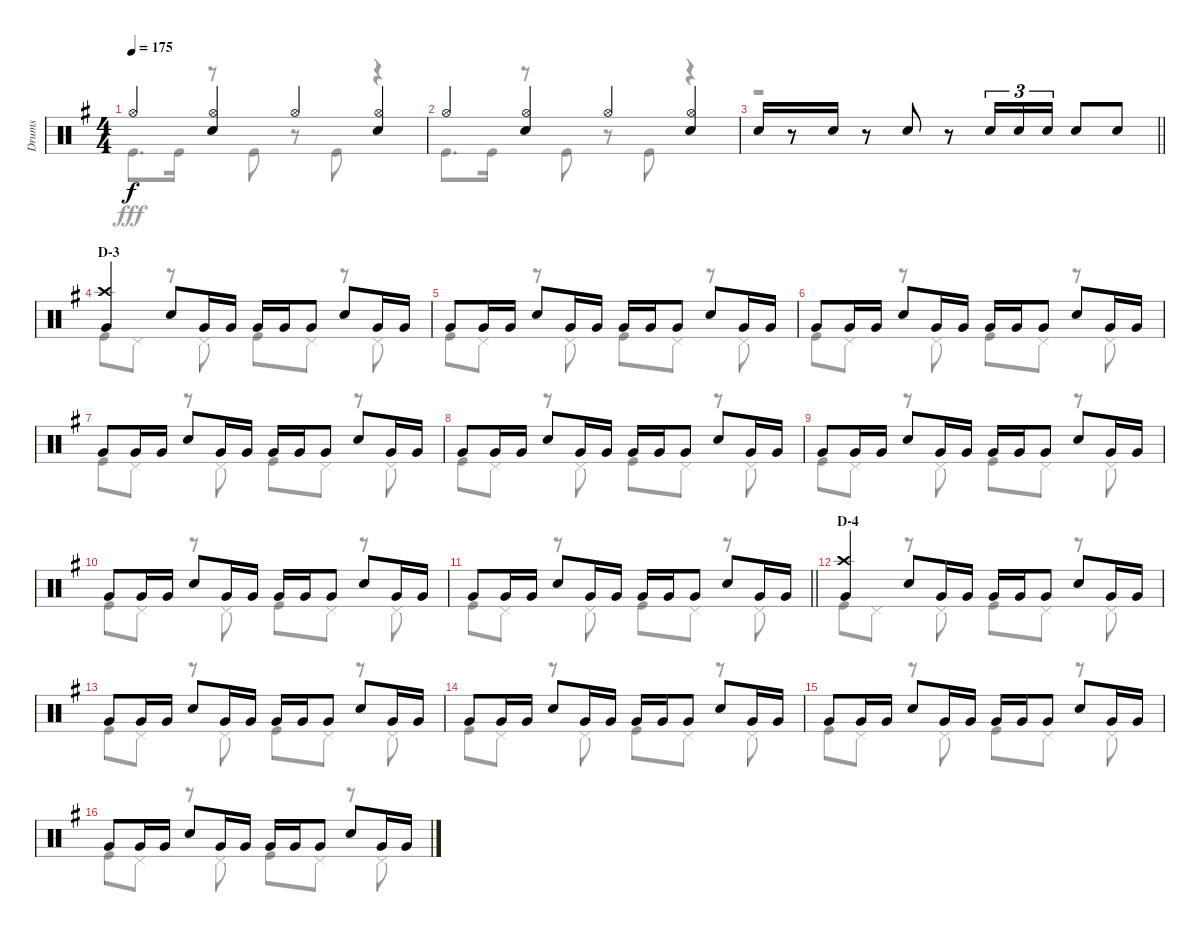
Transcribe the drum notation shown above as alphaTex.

\track ("Drums" "Drums") {instrument percussion}
\staff {score}
\articulation defaults
\voice
\ts (4 4)
\tempo 175
\clef neutral
\ks g "Hi-Hat (open)".4{dy f}
("Hi-Hat (open)" "Snare (hit) 2").4 "Hi-Hat (open)".4 ("Hi-Hat (open)" "Snare (hit) 2").4 |
"Hi-Hat (open)".4 ("Hi-Hat (open)" "Snare (hit) 2").4 "Hi-Hat (open)".4 ("Hi-Hat (open)" "Snare (hit) 2").4 |
\barLineRight lightlight "Snare (hit) 2".16
r.8 "Snare (hit) 2".16 r.8 "Snare (hit) 2".8 r.8 "Snare (hit) 2".16{tu (3 2)} "Snare (hit) 2".16{tu (3 2)} "Snare (hit) 2".16{tu (3 2)} "Snare (hit) 2".8 "Snare (hit) 2".8 |
\section ("" "D-3")
("Crash high (hit)" "Very Low Tom (hit)").4 "Snare (hit) 2".8 "Very Low Tom (hit)".16 "Very Low Tom (hit)".16 "Very Low Tom (hit)".16 "Very Low Tom (hit)".16 "Very Low Tom (hit)".8 "Snare (hit) 2".8 "Very Low Tom (hit)".16 "Very Low Tom (hit)".16 |
"Very Low Tom (hit)".8 "Very Low Tom (hit)".16 "Very Low Tom (hit)".16 "Snare (hit) 2".8 "Very Low Tom (hit)".16 "Very Low Tom (hit)".16 "Very Low Tom (hit)".16 "Very Low Tom (hit)".16 "Very Low Tom (hit)".8 "Snare (hit) 2".8 "Very Low Tom (hit)".16 "Very Low Tom (hit)".16 |
"Very Low Tom (hit)".8 "Very Low Tom (hit)".16 "Very Low Tom (hit)".16 "Snare (hit) 2".8 "Very Low Tom (hit)".16 "Very Low Tom (hit)".16 "Very Low Tom (hit)".16 "Very Low Tom (hit)".16 "Very Low Tom (hit)".8 "Snare (hit) 2".8 "Very Low Tom (hit)".16 "Very Low Tom (hit)".16 |
"Very Low Tom (hit)".8 "Very Low Tom (hit)".16 "Very Low Tom (hit)".16 "Snare (hit) 2".8 "Very Low Tom (hit)".16 "Very Low Tom (hit)".16 "Very Low Tom (hit)".16 "Very Low Tom (hit)".16 "Very Low Tom (hit)".8 "Snare (hit) 2".8 "Very Low Tom (hit)".16 "Very Low Tom (hit)".16 |
"Very Low Tom (hit)".8 "Very Low Tom (hit)".16 "Very Low Tom (hit)".16 "Snare (hit) 2".8 "Very Low Tom (hit)".16 "Very Low Tom (hit)".16 "Very Low Tom (hit)".16 "Very Low Tom (hit)".16 "Very Low Tom (hit)".8 "Snare (hit) 2".8 "Very Low Tom (hit)".16 "Very Low Tom (hit)".16 |
"Very Low Tom (hit)".8 "Very Low Tom (hit)".16 "Very Low Tom (hit)".16 "Snare (hit) 2".8 "Very Low Tom (hit)".16 "Very Low Tom (hit)".16 "Very Low Tom (hit)".16 "Very Low Tom (hit)".16 "Very Low Tom (hit)".8 "Snare (hit) 2".8 "Very Low Tom (hit)".16 "Very Low Tom (hit)".16 |
"Very Low Tom (hit)".8 "Very Low Tom (hit)".16 "Very Low Tom (hit)".16 "Snare (hit) 2".8 "Very Low Tom (hit)".16 "Very Low Tom (hit)".16 "Very Low Tom (hit)".16 "Very Low Tom (hit)".16 "Very Low Tom (hit)".8 "Snare (hit) 2".8 "Very Low Tom (hit)".16 "Very Low Tom (hit)".16 |
\barLineRight lightlight "Very Low Tom (hit)".8 "Very Low Tom (hit)".16 "Very Low Tom (hit)".16 "Snare (hit) 2".8 "Very Low Tom (hit)".16 "Very Low Tom (hit)".16 "Very Low Tom (hit)".16 "Very Low Tom (hit)".16 "Very Low Tom (hit)".8 "Snare (hit) 2".8 "Very Low Tom (hit)".16 "Very Low Tom (hit)".16
|
\section ("" "D-4")
("Crash high (hit)" "Very Low Tom (hit)").4 "Snare (hit) 2".8 "Very Low Tom (hit)".16 "Very Low Tom (hit)".16 "Very Low Tom (hit)".16 "Very Low Tom (hit)".16 "Very Low Tom (hit)".8 "Snare (hit) 2".8 "Very Low Tom (hit)".16 "Very Low Tom (hit)".16 |
"Very Low Tom (hit)".8 "Very Low Tom (hit)".16 "Very Low Tom (hit)".16 "Snare (hit) 2".8 "Very Low Tom (hit)".16 "Very Low Tom (hit)".16 "Very Low Tom (hit)".16 "Very Low Tom (hit)".16 "Very Low Tom (hit)".8 "Snare (hit) 2".8 "Very Low Tom (hit)".16 "Very Low Tom (hit)".16 |
"Very Low Tom (hit)".8 "Very Low Tom (hit)".16 "Very Low Tom (hit)".16 "Snare (hit) 2".8 "Very Low Tom (hit)".16 "Very Low Tom (hit)".16 "Very Low Tom (hit)".16 "Very Low Tom (hit)".16 "Very Low Tom (hit)".8 "Snare (hit) 2".8 "Very Low Tom (hit)".16 "Very Low Tom (hit)".16 |
"Very Low Tom (hit)".8 "Very Low Tom (hit)".16 "Very Low Tom (hit)".16 "Snare (hit) 2".8 "Very Low Tom (hit)".16 "Very Low Tom (hit)".16 "Very Low Tom (hit)".16 "Very Low Tom (hit)".16 "Very Low Tom (hit)".8 "Snare (hit) 2".8 "Very Low Tom (hit)".16 "Very Low Tom (hit)".16 |
"Very Low Tom (hit)".8 "Very Low Tom (hit)".16 "Very Low Tom (hit)".16 "Snare (hit) 2".8 "Very Low Tom (hit)".16 "Very Low Tom (hit)".16 "Very Low Tom (hit)".16 "Very Low Tom (hit)".16 "Very Low Tom (hit)".8 "Snare (hit) 2".8 "Very Low Tom (hit)".16 "Very Low Tom (hit)".16
\voice
\clef neutral
\ottava regular
\simile none
\ks g "Kick (hit)".8{d dy fff} "Kick (hit)".16
r.8 "Kick (hit)".8 r.8 "Kick (hit)".8 r.4 |
"Kick (hit)".8{d} "Kick (hit)".16 r.8 "Kick (hit)".8 r.8 "Kick (hit)".8 r.4 |
\barLineRight lightlight
r.1 |
"Kick (hit)".8 "Pedal Hi-Hat (hit)".8 r.8 "Pedal Hi-Hat (hit)".8 "Kick (hit)".8 "Pedal Hi-Hat (hit)".8 r.8 "Pedal Hi-Hat (hit)".8 |
"Kick (hit)".8 "Pedal Hi-Hat (hit)".8 r.8 "Pedal Hi-Hat (hit)".8 "Kick (hit)".8 "Pedal Hi-Hat (hit)".8 r.8 "Pedal Hi-Hat (hit)".8 |
"Kick (hit)".8 "Pedal Hi-Hat (hit)".8 r.8 "Pedal Hi-Hat (hit)".8 "Kick (hit)".8 "Pedal Hi-Hat (hit)".8 r.8 "Pedal Hi-Hat (hit)".8 |
"Kick (hit)".8 "Pedal Hi-Hat (hit)".8 r.8 "Pedal Hi-Hat (hit)".8 "Kick (hit)".8 "Pedal Hi-Hat (hit)".8 r.8 "Pedal Hi-Hat (hit)".8 |
"Kick (hit)".8 "Pedal Hi-Hat (hit)".8 r.8 "Pedal Hi-Hat (hit)".8 "Kick (hit)".8 "Pedal Hi-Hat (hit)".8 r.8 "Pedal Hi-Hat (hit)".8 |
"Kick (hit)".8 "Pedal Hi-Hat (hit)".8 r.8 "Pedal Hi-Hat (hit)".8 "Kick (hit)".8 "Pedal Hi-Hat (hit)".8 r.8 "Pedal Hi-Hat (hit)".8 |
"Kick (hit)".8 "Pedal Hi-Hat (hit)".8 r.8 "Pedal Hi-Hat (hit)".8 "Kick (hit)".8 "Pedal Hi-Hat (hit)".8 r.8 "Pedal Hi-Hat (hit)".8 |
\barLineRight lightlight "Kick (hit)".8 "Pedal Hi-Hat (hit)".8
r.8 "Pedal Hi-Hat (hit)".8 "Kick (hit)".8 "Pedal Hi-Hat (hit)".8 r.8 "Pedal Hi-Hat (hit)".8 |
"Kick (hit)".8 "Pedal Hi-Hat (hit)".8 r.8 "Pedal Hi-Hat (hit)".8 "Kick (hit)".8 "Pedal Hi-Hat (hit)".8 r.8 "Pedal Hi-Hat (hit)".8 |
"Kick (hit)".8 "Pedal Hi-Hat (hit)".8 r.8 "Pedal Hi-Hat (hit)".8 "Kick (hit)".8 "Pedal Hi-Hat (hit)".8 r.8 "Pedal Hi-Hat (hit)".8 |
"Kick (hit)".8 "Pedal Hi-Hat (hit)".8 r.8 "Pedal Hi-Hat (hit)".8 "Kick (hit)".8 "Pedal Hi-Hat (hit)".8 r.8 "Pedal Hi-Hat (hit)".8 |
"Kick (hit)".8 "Pedal Hi-Hat (hit)".8 r.8 "Pedal Hi-Hat (hit)".8 "Kick (hit)".8 "Pedal Hi-Hat (hit)".8 r.8 "Pedal Hi-Hat (hit)".8 |
"Kick (hit)".8 "Pedal Hi-Hat (hit)".8 r.8 "Pedal Hi-Hat (hit)".8 "Kick (hit)".8 "Pedal Hi-Hat (hit)".8 r.8 "Pedal Hi-Hat (hit)".8
